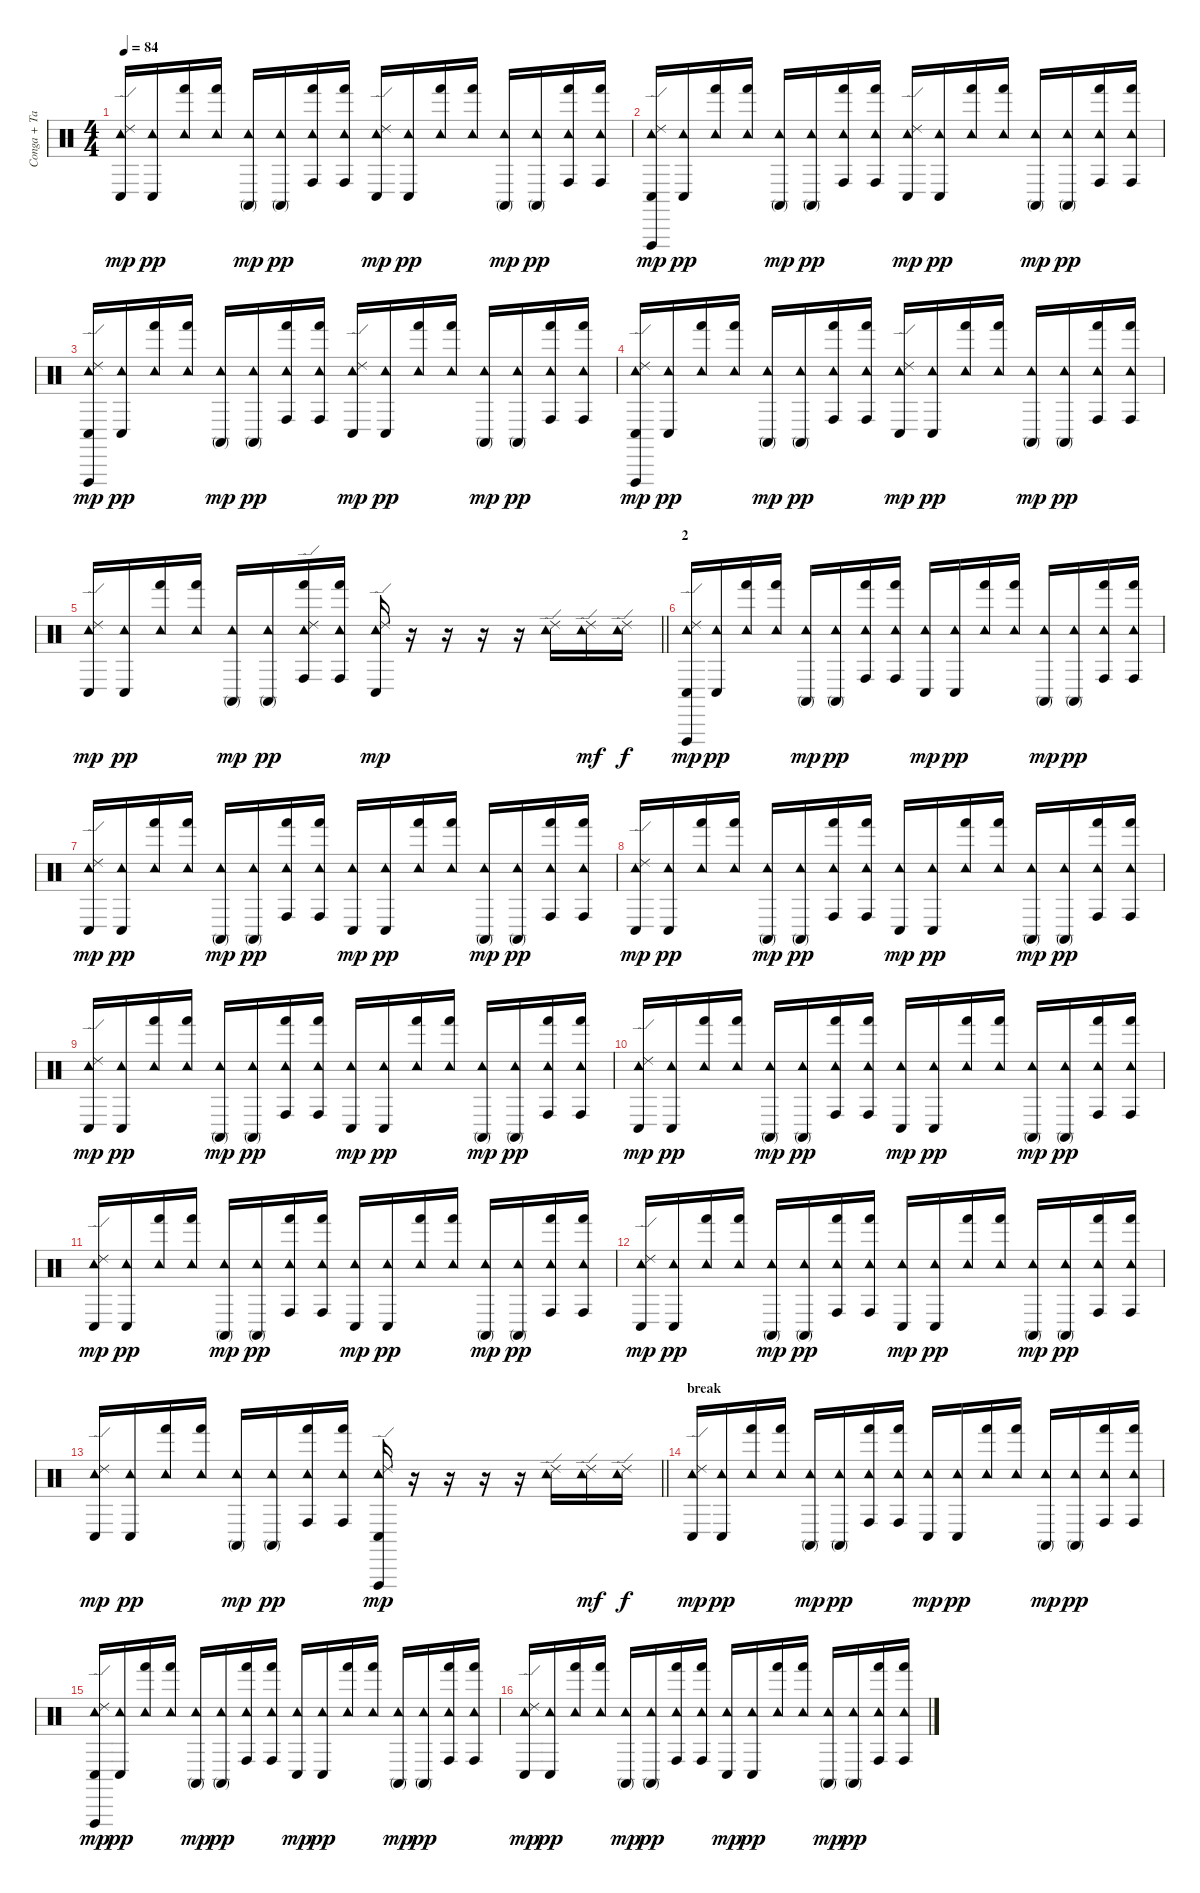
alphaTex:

\track ("Conga + Tambourine" "Conga + Ta") {instrument percussion}
\staff {score}
\articulation defaults
\ts (4 4)
\tempo 84
\clef neutral
\ks c
("Conga low (hit)" "Tambourine (hit)" "Ride (edge) 2").16{dy mp} ("Conga low (hit)" "Tambourine (hit)").16{dy pp} ("Hand (hit)" "Tambourine (hit)").16 ("Hand (hit)" "Tambourine (hit)").16 ("Conga high (mute)" "Tambourine (hit)").16{dy mp} ("Conga high (mute)" "Tambourine (hit)").16{dy pp} ("Conga high (hit)" "Hand (hit)" "Tambourine (hit)").16 ("Conga high (hit)" "Hand (hit)" "Tambourine (hit)").16 ("Conga low (hit)" "Tambourine (hit)" "Ride (edge) 2").16{dy mp} ("Conga low (hit)" "Tambourine (hit)").16{dy pp} ("Hand (hit)" "Tambourine (hit)").16 ("Hand (hit)" "Tambourine (hit)").16 ("Conga high (mute)" "Tambourine (hit)").16{dy mp} ("Conga high (mute)" "Tambourine (hit)").16{dy pp} ("Conga high (hit)" "Hand (hit)" "Tambourine (hit)").16 ("Conga high (hit)" "Hand (hit)" "Tambourine (hit)").16 |
("Conga low (hit)" "Vibraslap (hit)" "Tambourine (hit)" "Ride (edge) 2").16{dy mp} ("Conga low (hit)" "Tambourine (hit)").16{dy pp} ("Hand (hit)" "Tambourine (hit)").16 ("Hand (hit)" "Tambourine (hit)").16 ("Conga high (mute)" "Tambourine (hit)").16{dy mp} ("Conga high (mute)" "Tambourine (hit)").16{dy pp} ("Conga high (hit)" "Hand (hit)" "Tambourine (hit)").16 ("Conga high (hit)" "Hand (hit)" "Tambourine (hit)").16 ("Conga low (hit)" "Tambourine (hit)" "Ride (edge) 2").16{dy mp} ("Conga low (hit)" "Tambourine (hit)").16{dy pp} ("Hand (hit)" "Tambourine (hit)").16 ("Hand (hit)" "Tambourine (hit)").16 ("Conga high (mute)" "Tambourine (hit)").16{dy mp} ("Conga high (mute)" "Tambourine (hit)").16{dy pp} ("Conga high (hit)" "Hand (hit)" "Tambourine (hit)").16 ("Conga high (hit)" "Hand (hit)" "Tambourine (hit)").16 |
("Conga low (hit)" "Vibraslap (hit)" "Tambourine (hit)" "Ride (edge) 2").16{dy mp} ("Conga low (hit)" "Tambourine (hit)").16{dy pp} ("Hand (hit)" "Tambourine (hit)").16 ("Hand (hit)" "Tambourine (hit)").16 ("Conga high (mute)" "Tambourine (hit)").16{dy mp} ("Conga high (mute)" "Tambourine (hit)").16{dy pp} ("Conga high (hit)" "Hand (hit)" "Tambourine (hit)").16 ("Conga high (hit)" "Hand (hit)" "Tambourine (hit)").16 ("Conga low (hit)" "Tambourine (hit)" "Ride (edge) 2").16{dy mp} ("Conga low (hit)" "Tambourine (hit)").16{dy pp} ("Hand (hit)" "Tambourine (hit)").16 ("Hand (hit)" "Tambourine (hit)").16 ("Conga high (mute)" "Tambourine (hit)").16{dy mp} ("Conga high (mute)" "Tambourine (hit)").16{dy pp} ("Conga high (hit)" "Hand (hit)" "Tambourine (hit)").16 ("Conga high (hit)" "Hand (hit)" "Tambourine (hit)").16 |
("Conga low (hit)" "Vibraslap (hit)" "Tambourine (hit)" "Ride (edge) 2").16{dy mp} ("Conga low (hit)" "Tambourine (hit)").16{dy pp} ("Hand (hit)" "Tambourine (hit)").16 ("Hand (hit)" "Tambourine (hit)").16 ("Conga high (mute)" "Tambourine (hit)").16{dy mp} ("Conga high (mute)" "Tambourine (hit)").16{dy pp} ("Conga high (hit)" "Hand (hit)" "Tambourine (hit)").16 ("Conga high (hit)" "Hand (hit)" "Tambourine (hit)").16 ("Conga low (hit)" "Tambourine (hit)" "Ride (edge) 2").16{dy mp} ("Conga low (hit)" "Tambourine (hit)").16{dy pp} ("Hand (hit)" "Tambourine (hit)").16 ("Hand (hit)" "Tambourine (hit)").16 ("Conga high (mute)" "Tambourine (hit)").16{dy mp} ("Conga high (mute)" "Tambourine (hit)").16{dy pp} ("Conga high (hit)" "Hand (hit)" "Tambourine (hit)").16 ("Conga high (hit)" "Hand (hit)" "Tambourine (hit)").16 |
\barLineRight lightlight
("Conga low (hit)" "Tambourine (hit)" "Ride (edge) 2").16{dy mp} ("Conga low (hit)" "Tambourine (hit)").16{dy pp} ("Hand (hit)" "Tambourine (hit)").16 ("Hand (hit)" "Tambourine (hit)").16 ("Conga high (mute)" "Tambourine (hit)").16{dy mp} ("Conga high (mute)" "Tambourine (hit)").16{dy pp} ("Conga high (hit)" "Hand (hit)" "Tambourine (hit)" "Ride (edge) 2").16 ("Conga high (hit)" "Hand (hit)" "Tambourine (hit)").16 ("Conga low (hit)" "Tambourine (hit)" "Ride (edge) 2").16{dy mp} r.16 r.16 r.16 r.16 ("Tambourine (hit)" "Ride (edge) 2").16 ("Tambourine (hit)" "Ride (edge) 2").16{dy mf} ("Tambourine (hit)" "Ride (edge) 2").16{dy f} |
\section ("" "2")
("Conga low (hit)" "Vibraslap (hit)" "Tambourine (hit)" "Ride (edge) 2").16{dy mp} ("Conga low (hit)" "Tambourine (hit)").16{dy pp} ("Hand (hit)" "Tambourine (hit)").16 ("Hand (hit)" "Tambourine (hit)").16 ("Conga high (mute)" "Tambourine (hit)").16{dy mp} ("Conga high (mute)" "Tambourine (hit)").16{dy pp} ("Conga high (hit)" "Hand (hit)" "Tambourine (hit)").16 ("Conga high (hit)" "Hand (hit)" "Tambourine (hit)").16 ("Conga low (hit)" "Tambourine (hit)").16{dy mp} ("Conga low (hit)" "Tambourine (hit)").16{dy pp} ("Hand (hit)" "Tambourine (hit)").16 ("Hand (hit)" "Tambourine (hit)").16 ("Conga high (mute)" "Tambourine (hit)").16{dy mp} ("Conga high (mute)" "Tambourine (hit)").16{dy pp} ("Conga high (hit)" "Hand (hit)" "Tambourine (hit)").16 ("Conga high (hit)" "Hand (hit)" "Tambourine (hit)").16 |
("Conga low (hit)" "Tambourine (hit)" "Ride (edge) 2").16{dy mp} ("Conga low (hit)" "Tambourine (hit)").16{dy pp} ("Hand (hit)" "Tambourine (hit)").16 ("Hand (hit)" "Tambourine (hit)").16 ("Conga high (mute)" "Tambourine (hit)").16{dy mp} ("Conga high (mute)" "Tambourine (hit)").16{dy pp} ("Conga high (hit)" "Hand (hit)" "Tambourine (hit)").16 ("Conga high (hit)" "Hand (hit)" "Tambourine (hit)").16 ("Conga low (hit)" "Tambourine (hit)").16{dy mp} ("Conga low (hit)" "Tambourine (hit)").16{dy pp} ("Hand (hit)" "Tambourine (hit)").16 ("Hand (hit)" "Tambourine (hit)").16 ("Conga high (mute)" "Tambourine (hit)").16{dy mp} ("Conga high (mute)" "Tambourine (hit)").16{dy pp} ("Conga high (hit)" "Hand (hit)" "Tambourine (hit)").16 ("Conga high (hit)" "Hand (hit)" "Tambourine (hit)").16 |
("Conga low (hit)" "Tambourine (hit)" "Ride (edge) 2").16{dy mp} ("Conga low (hit)" "Tambourine (hit)").16{dy pp} ("Hand (hit)" "Tambourine (hit)").16 ("Hand (hit)" "Tambourine (hit)").16 ("Conga high (mute)" "Tambourine (hit)").16{dy mp} ("Conga high (mute)" "Tambourine (hit)").16{dy pp} ("Conga high (hit)" "Hand (hit)" "Tambourine (hit)").16 ("Conga high (hit)" "Hand (hit)" "Tambourine (hit)").16 ("Conga low (hit)" "Tambourine (hit)").16{dy mp} ("Conga low (hit)" "Tambourine (hit)").16{dy pp} ("Hand (hit)" "Tambourine (hit)").16 ("Hand (hit)" "Tambourine (hit)").16 ("Conga high (mute)" "Tambourine (hit)").16{dy mp} ("Conga high (mute)" "Tambourine (hit)").16{dy pp} ("Conga high (hit)" "Hand (hit)" "Tambourine (hit)").16 ("Conga high (hit)" "Hand (hit)" "Tambourine (hit)").16 |
("Conga low (hit)" "Tambourine (hit)" "Ride (edge) 2").16{dy mp} ("Conga low (hit)" "Tambourine (hit)").16{dy pp} ("Hand (hit)" "Tambourine (hit)").16 ("Hand (hit)" "Tambourine (hit)").16 ("Conga high (mute)" "Tambourine (hit)").16{dy mp} ("Conga high (mute)" "Tambourine (hit)").16{dy pp} ("Conga high (hit)" "Hand (hit)" "Tambourine (hit)").16 ("Conga high (hit)" "Hand (hit)" "Tambourine (hit)").16 ("Conga low (hit)" "Tambourine (hit)").16{dy mp} ("Conga low (hit)" "Tambourine (hit)").16{dy pp} ("Hand (hit)" "Tambourine (hit)").16 ("Hand (hit)" "Tambourine (hit)").16 ("Conga high (mute)" "Tambourine (hit)").16{dy mp} ("Conga high (mute)" "Tambourine (hit)").16{dy pp} ("Conga high (hit)" "Hand (hit)" "Tambourine (hit)").16 ("Conga high (hit)" "Hand (hit)" "Tambourine (hit)").16 |
("Conga low (hit)" "Tambourine (hit)" "Ride (edge) 2").16{dy mp} ("Conga low (hit)" "Tambourine (hit)").16{dy pp} ("Hand (hit)" "Tambourine (hit)").16 ("Hand (hit)" "Tambourine (hit)").16 ("Conga high (mute)" "Tambourine (hit)").16{dy mp} ("Conga high (mute)" "Tambourine (hit)").16{dy pp} ("Conga high (hit)" "Hand (hit)" "Tambourine (hit)").16 ("Conga high (hit)" "Hand (hit)" "Tambourine (hit)").16 ("Conga low (hit)" "Tambourine (hit)").16{dy mp} ("Conga low (hit)" "Tambourine (hit)").16{dy pp} ("Hand (hit)" "Tambourine (hit)").16 ("Hand (hit)" "Tambourine (hit)").16 ("Conga high (mute)" "Tambourine (hit)").16{dy mp} ("Conga high (mute)" "Tambourine (hit)").16{dy pp} ("Conga high (hit)" "Hand (hit)" "Tambourine (hit)").16 ("Conga high (hit)" "Hand (hit)" "Tambourine (hit)").16 |
("Conga low (hit)" "Tambourine (hit)" "Ride (edge) 2").16{dy mp} ("Conga low (hit)" "Tambourine (hit)").16{dy pp} ("Hand (hit)" "Tambourine (hit)").16 ("Hand (hit)" "Tambourine (hit)").16 ("Conga high (mute)" "Tambourine (hit)").16{dy mp} ("Conga high (mute)" "Tambourine (hit)").16{dy pp} ("Conga high (hit)" "Hand (hit)" "Tambourine (hit)").16 ("Conga high (hit)" "Hand (hit)" "Tambourine (hit)").16 ("Conga low (hit)" "Tambourine (hit)").16{dy mp} ("Conga low (hit)" "Tambourine (hit)").16{dy pp} ("Hand (hit)" "Tambourine (hit)").16 ("Hand (hit)" "Tambourine (hit)").16 ("Conga high (mute)" "Tambourine (hit)").16{dy mp} ("Conga high (mute)" "Tambourine (hit)").16{dy pp} ("Conga high (hit)" "Hand (hit)" "Tambourine (hit)").16 ("Conga high (hit)" "Hand (hit)" "Tambourine (hit)").16 |
("Conga low (hit)" "Tambourine (hit)" "Ride (edge) 2").16{dy mp} ("Conga low (hit)" "Tambourine (hit)").16{dy pp} ("Hand (hit)" "Tambourine (hit)").16 ("Hand (hit)" "Tambourine (hit)").16 ("Conga high (mute)" "Tambourine (hit)").16{dy mp} ("Conga high (mute)" "Tambourine (hit)").16{dy pp} ("Conga high (hit)" "Hand (hit)" "Tambourine (hit)").16 ("Conga high (hit)" "Hand (hit)" "Tambourine (hit)").16 ("Conga low (hit)" "Tambourine (hit)").16{dy mp} ("Conga low (hit)" "Tambourine (hit)").16{dy pp} ("Hand (hit)" "Tambourine (hit)").16 ("Hand (hit)" "Tambourine (hit)").16 ("Conga high (mute)" "Tambourine (hit)").16{dy mp} ("Conga high (mute)" "Tambourine (hit)").16{dy pp} ("Conga high (hit)" "Hand (hit)" "Tambourine (hit)").16 ("Conga high (hit)" "Hand (hit)" "Tambourine (hit)").16 |
\barLineRight lightlight
("Conga low (hit)" "Tambourine (hit)" "Ride (edge) 2").16{dy mp} ("Conga low (hit)" "Tambourine (hit)").16{dy pp} ("Hand (hit)" "Tambourine (hit)").16 ("Hand (hit)" "Tambourine (hit)").16 ("Conga high (mute)" "Tambourine (hit)").16{dy mp} ("Conga high (mute)" "Tambourine (hit)").16{dy pp} ("Conga high (hit)" "Hand (hit)" "Tambourine (hit)").16 ("Conga high (hit)" "Hand (hit)" "Tambourine (hit)").16 ("Conga low (hit)" "Vibraslap (hit)" "Tambourine (hit)" "Ride (edge) 2").16{dy mp} r.16 r.16 r.16 r.16 ("Tambourine (hit)" "Ride (edge) 2").16 ("Tambourine (hit)" "Ride (edge) 2").16{dy mf} ("Tambourine (hit)" "Ride (edge) 2").16{dy f} |
\section ("" "break")
("Conga low (hit)" "Tambourine (hit)" "Ride (edge) 2").16{dy mp} ("Conga low (hit)" "Tambourine (hit)").16{dy pp} ("Hand (hit)" "Tambourine (hit)").16 ("Hand (hit)" "Tambourine (hit)").16 ("Conga high (mute)" "Tambourine (hit)").16{dy mp} ("Conga high (mute)" "Tambourine (hit)").16{dy pp} ("Conga high (hit)" "Hand (hit)" "Tambourine (hit)").16 ("Conga high (hit)" "Hand (hit)" "Tambourine (hit)").16 ("Conga low (hit)" "Tambourine (hit)").16{dy mp} ("Conga low (hit)" "Tambourine (hit)").16{dy pp} ("Hand (hit)" "Tambourine (hit)").16 ("Hand (hit)" "Tambourine (hit)").16 ("Conga high (mute)" "Tambourine (hit)").16{dy mp} ("Conga high (mute)" "Tambourine (hit)").16{dy pp} ("Conga high (hit)" "Hand (hit)" "Tambourine (hit)").16 ("Conga high (hit)" "Hand (hit)" "Tambourine (hit)").16 |
("Conga low (hit)" "Vibraslap (hit)" "Tambourine (hit)" "Ride (edge) 2").16{dy mp} ("Conga low (hit)" "Tambourine (hit)").16{dy pp} ("Hand (hit)" "Tambourine (hit)").16 ("Hand (hit)" "Tambourine (hit)").16 ("Conga high (mute)" "Tambourine (hit)").16{dy mp} ("Conga high (mute)" "Tambourine (hit)").16{dy pp} ("Conga high (hit)" "Hand (hit)" "Tambourine (hit)").16 ("Conga high (hit)" "Hand (hit)" "Tambourine (hit)").16 ("Conga low (hit)" "Tambourine (hit)").16{dy mp} ("Conga low (hit)" "Tambourine (hit)").16{dy pp} ("Hand (hit)" "Tambourine (hit)").16 ("Hand (hit)" "Tambourine (hit)").16 ("Conga high (mute)" "Tambourine (hit)").16{dy mp} ("Conga high (mute)" "Tambourine (hit)").16{dy pp} ("Conga high (hit)" "Hand (hit)" "Tambourine (hit)").16 ("Conga high (hit)" "Hand (hit)" "Tambourine (hit)").16 |
("Conga low (hit)" "Tambourine (hit)" "Ride (edge) 2").16{dy mp} ("Conga low (hit)" "Tambourine (hit)").16{dy pp} ("Hand (hit)" "Tambourine (hit)").16 ("Hand (hit)" "Tambourine (hit)").16 ("Conga high (mute)" "Tambourine (hit)").16{dy mp} ("Conga high (mute)" "Tambourine (hit)").16{dy pp} ("Conga high (hit)" "Hand (hit)" "Tambourine (hit)").16 ("Conga high (hit)" "Hand (hit)" "Tambourine (hit)").16 ("Conga low (hit)" "Tambourine (hit)").16{dy mp} ("Conga low (hit)" "Tambourine (hit)").16{dy pp} ("Hand (hit)" "Tambourine (hit)").16 ("Hand (hit)" "Tambourine (hit)").16 ("Conga high (mute)" "Tambourine (hit)").16{dy mp} ("Conga high (mute)" "Tambourine (hit)").16{dy pp} ("Conga high (hit)" "Hand (hit)" "Tambourine (hit)").16 ("Conga high (hit)" "Hand (hit)" "Tambourine (hit)").16
